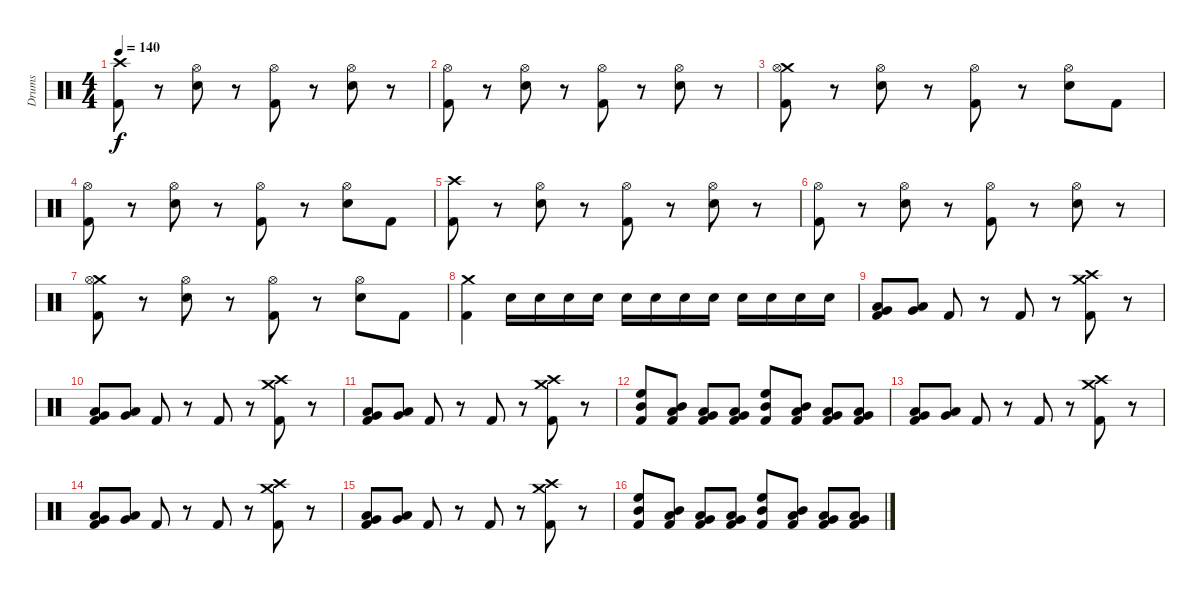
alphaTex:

\track ("Drums" "Drums") {instrument percussion}
\staff {score}
\articulation defaults
\ts (4 4)
\tempo 140
\clef neutral
\ks c
("Crash high (hit)" "Kick (hit) 2").8{dy f} r.8 ("Snare (hit) 2" "Hi-Hat (open)").8 r.8 ("Hi-Hat (open)" "Kick (hit) 2").8 r.8 ("Snare (hit) 2" "Hi-Hat (open)").8 r.8 |
("Hi-Hat (open)" "Kick (hit) 2").8 r.8 ("Snare (hit) 2" "Hi-Hat (open)").8 r.8 ("Hi-Hat (open)" "Kick (hit) 2").8 r.8 ("Snare (hit) 2" "Hi-Hat (open)").8 r.8 |
("Crash medium (hit)" "Hi-Hat (open)" "Kick (hit) 2").8 r.8 ("Snare (hit) 2" "Hi-Hat (open)").8 r.8 ("Hi-Hat (open)" "Kick (hit) 2").8 r.8 ("Snare (hit) 2" "Hi-Hat (open)").8 "Kick (hit) 2".8 |
("Hi-Hat (open)" "Kick (hit) 2").8 r.8 ("Snare (hit) 2" "Hi-Hat (open)").8 r.8 ("Hi-Hat (open)" "Kick (hit) 2").8 r.8 ("Snare (hit) 2" "Hi-Hat (open)").8 "Kick (hit) 2".8 |
("Crash high (hit)" "Kick (hit) 2").8 r.8 ("Snare (hit) 2" "Hi-Hat (open)").8 r.8 ("Hi-Hat (open)" "Kick (hit) 2").8 r.8 ("Snare (hit) 2" "Hi-Hat (open)").8 r.8 |
("Hi-Hat (open)" "Kick (hit) 2").8 r.8 ("Snare (hit) 2" "Hi-Hat (open)").8 r.8 ("Hi-Hat (open)" "Kick (hit) 2").8 r.8 ("Snare (hit) 2" "Hi-Hat (open)").8 r.8 |
("Crash medium (hit)" "Hi-Hat (open)" "Kick (hit) 2").8 r.8 ("Snare (hit) 2" "Hi-Hat (open)").8 r.8 ("Hi-Hat (open)" "Kick (hit) 2").8 r.8 ("Snare (hit) 2" "Hi-Hat (open)").8 "Kick (hit) 2".8 |
("Crash medium (hit)" "Kick (hit) 2").4 "Snare (hit) 2".16 "Snare (hit) 2".16 "Snare (hit) 2".16 "Snare (hit) 2".16 "Snare (hit) 2".16 "Snare (hit) 2".16 "Snare (hit) 2".16 "Snare (hit) 2".16 "Snare (hit) 2".16 "Snare (hit) 2".16 "Snare (hit) 2".16 "Snare (hit) 2".16 |
("Low Floor Tom (hit)" "Very Low Tom (hit)" "Kick (hit) 2").8 ("Low Floor Tom (hit)" "Very Low Tom (hit)").8 "Kick (hit) 2".8 r.8 "Kick (hit) 2".8 r.8 ("Crash high (hit)" "Crash medium (hit)" "Kick (hit) 2").8 r.8 |
("Low Floor Tom (hit)" "Very Low Tom (hit)" "Kick (hit) 2").8 ("Low Floor Tom (hit)" "Very Low Tom (hit)").8 "Kick (hit) 2".8 r.8 "Kick (hit) 2".8 r.8 ("Crash high (hit)" "Crash medium (hit)" "Kick (hit) 2").8 r.8 |
("Low Floor Tom (hit)" "Very Low Tom (hit)" "Kick (hit) 2").8 ("Low Floor Tom (hit)" "Very Low Tom (hit)").8 "Kick (hit) 2".8 r.8 "Kick (hit) 2".8 r.8 ("Crash high (hit)" "Crash medium (hit)" "Kick (hit) 2").8 r.8 |
("High Floor Tom (hit)" "Mid Tom (hit)" "Kick (hit) 2").8 ("Mid Tom (hit)" "Low Tom (hit)" "Kick (hit) 2").8 ("Low Tom (hit)" "Very Low Tom (hit)" "Kick (hit) 2").8 ("Very Low Tom (hit)" "Low Floor Tom (hit)" "Kick (hit) 2").8 ("High Floor Tom (hit)" "Mid Tom (hit)" "Kick (hit) 2").8 ("Mid Tom (hit)" "Low Tom (hit)" "Kick (hit) 2").8 ("Low Tom (hit)" "Very Low Tom (hit)" "Kick (hit) 2").8 ("Very Low Tom (hit)" "Low Floor Tom (hit)" "Kick (hit) 2").8 |
("Low Floor Tom (hit)" "Very Low Tom (hit)" "Kick (hit) 2").8 ("Low Floor Tom (hit)" "Very Low Tom (hit)").8 "Kick (hit) 2".8 r.8 "Kick (hit) 2".8 r.8 ("Crash high (hit)" "Crash medium (hit)" "Kick (hit) 2").8 r.8 |
("Low Floor Tom (hit)" "Very Low Tom (hit)" "Kick (hit) 2").8 ("Low Floor Tom (hit)" "Very Low Tom (hit)").8 "Kick (hit) 2".8 r.8 "Kick (hit) 2".8 r.8 ("Crash high (hit)" "Crash medium (hit)" "Kick (hit) 2").8 r.8 |
("Low Floor Tom (hit)" "Very Low Tom (hit)" "Kick (hit) 2").8 ("Low Floor Tom (hit)" "Very Low Tom (hit)").8 "Kick (hit) 2".8 r.8 "Kick (hit) 2".8 r.8 ("Crash high (hit)" "Crash medium (hit)" "Kick (hit) 2").8 r.8 |
("High Floor Tom (hit)" "Mid Tom (hit)" "Kick (hit) 2").8 ("Mid Tom (hit)" "Low Tom (hit)" "Kick (hit) 2").8 ("Low Tom (hit)" "Very Low Tom (hit)" "Kick (hit) 2").8 ("Very Low Tom (hit)" "Low Floor Tom (hit)" "Kick (hit) 2").8 ("High Floor Tom (hit)" "Mid Tom (hit)" "Kick (hit) 2").8 ("Mid Tom (hit)" "Low Tom (hit)" "Kick (hit) 2").8 ("Low Tom (hit)" "Very Low Tom (hit)" "Kick (hit) 2").8 ("Very Low Tom (hit)" "Low Floor Tom (hit)" "Kick (hit) 2").8
